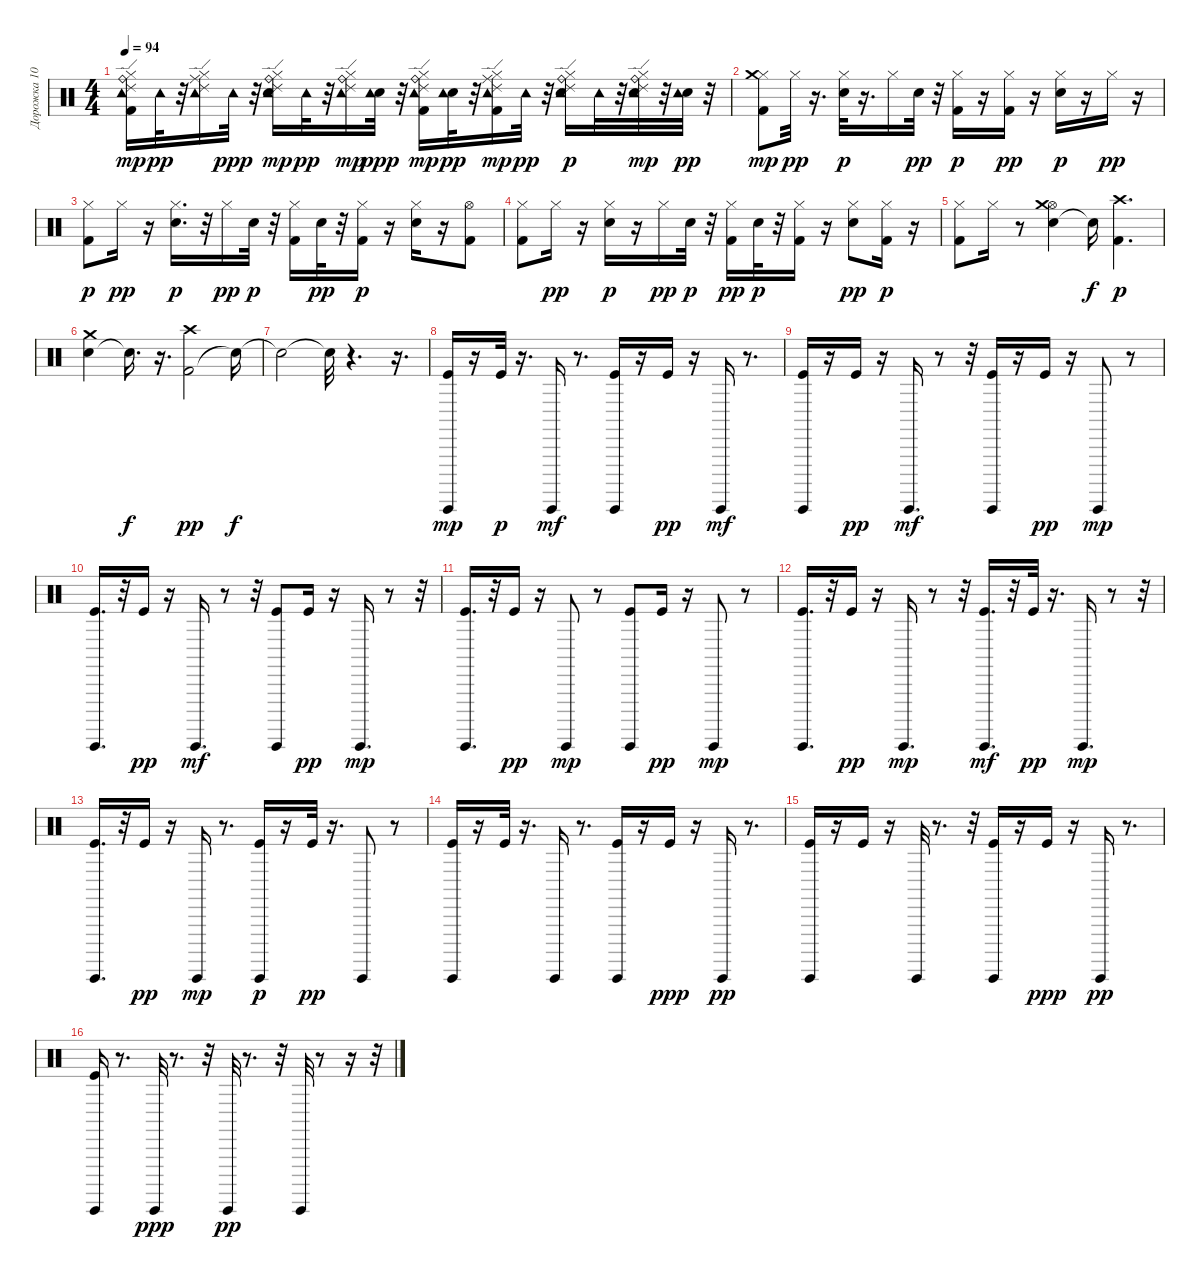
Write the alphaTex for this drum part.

\track ("Дорожка 10" "Дорожка 10") {instrument percussion}
\staff {score}
\articulation defaults
\ts (4 4)
\tempo 94
\clef neutral
\ks c
("Kick (hit) 2" "Hi-Hat (closed)" "Ride (bell)" "Tambourine (hit)" "Ride (edge) 2").16{dy mp} "Tambourine (hit)".32{dy pp} r.32 ("Hi-Hat (closed)" "Ride (middle)" "Tambourine (hit)" "Ride (edge) 2").16 "Tambourine (hit)".32{dy ppp} r.32 ("Electric Snare (hit)" "Hi-Hat (closed)" "Ride (bell)" "Tambourine (hit)" "Ride (edge) 2").16{dy mp} "Tambourine (hit)".32{dy pp} r.32 ("Hi-Hat (closed)" "Ride (bell)" "Tambourine (hit)" "Ride (edge) 2").16{dy mp} ("Electric Snare (hit)" "Tambourine (hit)").32{dy ppp} r.32 ("Kick (hit) 2" "Hi-Hat (closed)" "Ride (bell)" "Tambourine (hit)" "Ride (edge) 2").16{dy mp} ("Electric Snare (hit)" "Tambourine (hit)").32{dy pp} r.32 ("Kick (hit) 2" "Hi-Hat (closed)" "Ride (middle)" "Tambourine (hit)" "Ride (edge) 2").16{dy mp} "Tambourine (hit)".32{dy pp} r.32 ("Electric Snare (hit)" "Hi-Hat (closed)" "Ride (bell)" "Tambourine (hit)" "Ride (edge) 2").16{dy p} "Tambourine (hit)".32 r.32 ("Electric Snare (hit)" "Hi-Hat (closed)" "Ride (bell)" "Tambourine (hit)" "Ride (edge) 2").32{dy mp} r.32 ("Electric Snare (hit)" "Tambourine (hit)").32{dy pp} r.32 |
("Kick (hit) 2" "Hi-Hat (closed)" "Crash medium (hit)").8{dy mp} "Hi-Hat (closed)".32{dy pp} r.16{d} ("Electric Snare (hit)" "Hi-Hat (closed)").32{dy p} r.16{d} "Hi-Hat (closed)".16 "Electric Snare (hit)".32{dy pp} r.32 ("Kick (hit) 2" "Hi-Hat (closed)").16{dy p} r.16 ("Kick (hit) 2" "Hi-Hat (closed)").16{dy pp} r.16 ("Electric Snare (hit)" "Hi-Hat (closed)").16{dy p} r.16 "Hi-Hat (closed)".16{dy pp} r.16 |
("Kick (hit) 2" "Hi-Hat (closed)").8{dy p} "Hi-Hat (closed)".16{dy pp} r.16 ("Electric Snare (hit)" "Hi-Hat (closed)").16{d dy p} r.32 "Hi-Hat (closed)".16{dy pp} "Electric Snare (hit)".32{dy p} r.32 ("Kick (hit) 2" "Hi-Hat (closed)").16 "Electric Snare (hit)".32{dy pp} r.32 ("Kick (hit) 2" "Hi-Hat (closed)").16{dy p} r.16 ("Electric Snare (hit)" "Hi-Hat (closed)").16 r.16 ("Kick (hit) 2" "Hi-Hat (open)").8 |
("Kick (hit) 2" "Hi-Hat (closed)").8 "Hi-Hat (closed)".16{dy pp} r.16 ("Electric Snare (hit)" "Hi-Hat (closed)").16{dy p} r.16 "Hi-Hat (closed)".16{dy pp} "Electric Snare (hit)".32{dy p} r.32 ("Kick (hit) 2" "Hi-Hat (closed)").16{dy pp} "Electric Snare (hit)".32{dy p} r.32 ("Kick (hit) 2" "Hi-Hat (closed)").16 r.16 ("Electric Snare (hit)" "Hi-Hat (closed)").8{dy pp} ("Kick (hit) 2" "Hi-Hat (closed)").16{dy p} r.16 |
("Kick (hit) 2" "Hi-Hat (closed)").8 "Hi-Hat (closed)".16 r.8 ("Electric Snare (hit)" "Hi-Hat (open)" "Crash medium (hit)").4 "Snare (hit)"{t}.16{dy f} ("Kick (hit) 2" "Crash high (hit)").4{d dy p} |
("Electric Snare (hit)" "Crash medium (hit)").4 "Snare (hit)"{t}.16{d dy f} r.16{d} ("Kick (hit) 2" "Crash high (hit)").2{dy pp} "Snare (hit)"{t}.16{dy f} |
"Snare (hit)"{t}.2 "Snare (hit)"{t}.32 r.4{d} r.16{d} |
("Kick (hit)" "Guiro (hit)").16{dy mp} r.16 "Kick (hit)".32{dy p} r.16{d} "Guiro (hit)".16{dy mf} r.8{d} ("Kick (hit)" "Guiro (hit)").16 r.16 "Kick (hit)".16{dy pp} r.16 "Guiro (hit)".16{dy mf} r.8{d} |
("Kick (hit)" "Guiro (hit)").16 r.16 "Kick (hit)".16{dy pp} r.16 "Guiro (hit)".16{d dy mf} r.8 r.32 ("Kick (hit)" "Guiro (hit)").16 r.16 "Kick (hit)".16{dy pp} r.16 "Guiro (hit)".8{dy mp} r.8 |
("Kick (hit)" "Guiro (hit)").16{d} r.32 "Kick (hit)".16{dy pp} r.16 "Guiro (hit)".16{d dy mf} r.8 r.32 ("Kick (hit)" "Guiro (hit)").8 "Kick (hit)".16{dy pp} r.16 "Guiro (hit)".16{d dy mp} r.8 r.32 |
("Kick (hit)" "Guiro (hit)").16{d} r.32 "Kick (hit)".16{dy pp} r.16 "Guiro (hit)".8{dy mp} r.8 ("Kick (hit)" "Guiro (hit)").8 "Kick (hit)".16{dy pp} r.16 "Guiro (hit)".8{dy mp} r.8 |
("Kick (hit)" "Guiro (hit)").16{d} r.32 "Kick (hit)".16{dy pp} r.16 "Guiro (hit)".16{d dy mp} r.8 r.32 ("Kick (hit)" "Guiro (hit)").16{d dy mf} r.32 "Kick (hit)".32{dy pp} r.16{d} "Guiro (hit)".16{d dy mp} r.8 r.32 |
("Kick (hit)" "Guiro (hit)").16{d} r.32 "Kick (hit)".16{dy pp} r.16 "Guiro (hit)".16{dy mp} r.8{d} ("Kick (hit)" "Guiro (hit)").16{dy p} r.16 "Kick (hit)".32{dy pp} r.16{d} "Guiro (hit)".8 r.8 |
("Kick (hit)" "Guiro (hit)").16 r.16 "Kick (hit)".32 r.16{d} "Guiro (hit)".16 r.8{d} ("Kick (hit)" "Guiro (hit)").16 r.16 "Kick (hit)".16{dy ppp} r.16 "Guiro (hit)".16{dy pp} r.8{d} |
("Kick (hit)" "Guiro (hit)").16 r.16 "Kick (hit)".16 r.16 "Guiro (hit)".32 r.8{d} r.32 ("Kick (hit)" "Guiro (hit)").16 r.16 "Kick (hit)".16{dy ppp} r.16 "Guiro (hit)".16{dy pp} r.8{d} |
("Kick (hit)" "Guiro (hit)").16 r.8{d} "Guiro (hit)".32{dy ppp} r.8{d} r.32 "Guiro (hit)".32{dy pp} r.8{d} r.32 "Guiro (hit)".32 r.8 r.16 r.32
